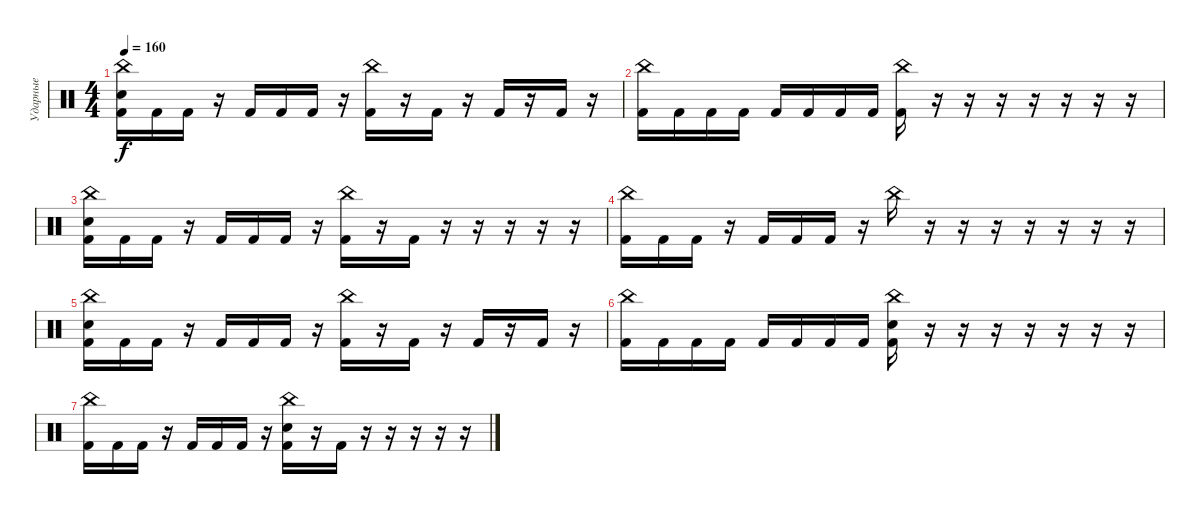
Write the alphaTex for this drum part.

\track ("Ударные" "Ударные") {instrument percussion}
\staff {score}
\articulation defaults
\ts (4 4)
\tempo 160
\clef neutral
\ks c
("China (hit)" "Electric Snare (hit)" "Kick (hit) 2").16{dy f} "Kick (hit) 2".16 "Kick (hit) 2".16 r.16 "Kick (hit) 2".16 "Kick (hit) 2".16 "Kick (hit) 2".16 r.16 ("China (hit)" "Kick (hit) 2").16 r.16 "Kick (hit) 2".16 r.16 "Kick (hit) 2".16 r.16 "Kick (hit) 2".16 r.16 |
("China (hit)" "Kick (hit) 2").16 "Kick (hit) 2".16 "Kick (hit) 2".16 "Kick (hit) 2".16 "Kick (hit) 2".16 "Kick (hit) 2".16 "Kick (hit) 2".16 "Kick (hit) 2".16 ("China (hit)" "Kick (hit) 2").16 r.16 r.16 r.16 r.16 r.16 r.16 r.16 |
("China (hit)" "Electric Snare (hit)" "Kick (hit) 2").16 "Kick (hit) 2".16 "Kick (hit) 2".16 r.16 "Kick (hit) 2".16 "Kick (hit) 2".16 "Kick (hit) 2".16 r.16 ("China (hit)" "Kick (hit) 2").16 r.16 "Kick (hit) 2".16 r.16 r.16 r.16 r.16 r.16 |
("China (hit)" "Kick (hit) 2").16 "Kick (hit) 2".16 "Kick (hit) 2".16 r.16 "Kick (hit) 2".16 "Kick (hit) 2".16 "Kick (hit) 2".16 r.16 "China (hit)".16 r.16 r.16 r.16 r.16 r.16 r.16 r.16 |
("China (hit)" "Electric Snare (hit)" "Kick (hit) 2").16 "Kick (hit) 2".16 "Kick (hit) 2".16 r.16 "Kick (hit) 2".16 "Kick (hit) 2".16 "Kick (hit) 2".16 r.16 ("China (hit)" "Kick (hit) 2").16 r.16 "Kick (hit) 2".16 r.16 "Kick (hit) 2".16 r.16 "Kick (hit) 2".16 r.16 |
("China (hit)" "Kick (hit) 2").16 "Kick (hit) 2".16 "Kick (hit) 2".16 "Kick (hit) 2".16 "Kick (hit) 2".16 "Kick (hit) 2".16 "Kick (hit) 2".16 "Kick (hit) 2".16 ("China (hit)" "Electric Snare (hit)" "Kick (hit) 2").16 r.16 r.16 r.16 r.16 r.16 r.16 r.16 |
("China (hit)" "Kick (hit) 2").16 "Kick (hit) 2".16 "Kick (hit) 2".16 r.16 "Kick (hit) 2".16 "Kick (hit) 2".16 "Kick (hit) 2".16 r.16 ("China (hit)" "Electric Snare (hit)" "Kick (hit) 2").16 r.16 "Kick (hit) 2".16 r.16 r.16 r.16 r.16 r.16
